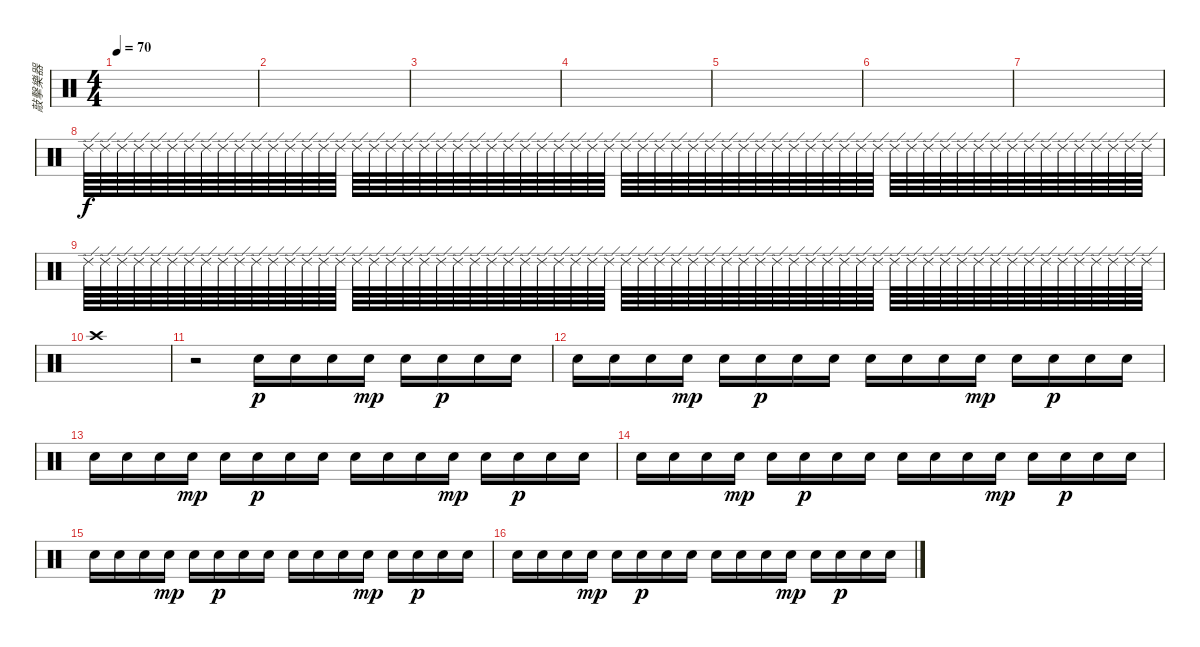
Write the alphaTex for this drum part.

\track ("敲擊樂器" "敲擊樂器") {instrument percussion}
\staff {score}
\articulation defaults
\ts (4 4)
\tempo 70
\clef neutral
\ks c
|
|
|
|
|
|
|
"Ride (edge) 2".64 "Ride (edge) 2".64 "Ride (edge) 2".64 "Ride (edge) 2".64 "Ride (edge) 2".64 "Ride (edge) 2".64 "Ride (edge) 2".64 "Ride (edge) 2".64 "Ride (edge) 2".64 "Ride (edge) 2".64 "Ride (edge) 2".64 "Ride (edge) 2".64 "Ride (edge) 2".64 "Ride (edge) 2".64 "Ride (edge) 2".64 "Ride (edge) 2".64 "Ride (edge) 2".64 "Ride (edge) 2".64 "Ride (edge) 2".64 "Ride (edge) 2".64 "Ride (edge) 2".64 "Ride (edge) 2".64 "Ride (edge) 2".64 "Ride (edge) 2".64 "Ride (edge) 2".64 "Ride (edge) 2".64 "Ride (edge) 2".64 "Ride (edge) 2".64 "Ride (edge) 2".64 "Ride (edge) 2".64 "Ride (edge) 2".64 "Ride (edge) 2".64 "Ride (edge) 2".64 "Ride (edge) 2".64 "Ride (edge) 2".64 "Ride (edge) 2".64 "Ride (edge) 2".64 "Ride (edge) 2".64 "Ride (edge) 2".64 "Ride (edge) 2".64 "Ride (edge) 2".64 "Ride (edge) 2".64 "Ride (edge) 2".64 "Ride (edge) 2".64 "Ride (edge) 2".64 "Ride (edge) 2".64 "Ride (edge) 2".64 "Ride (edge) 2".64 "Ride (edge) 2".64 "Ride (edge) 2".64 "Ride (edge) 2".64 "Ride (edge) 2".64 "Ride (edge) 2".64 "Ride (edge) 2".64 "Ride (edge) 2".64 "Ride (edge) 2".64 "Ride (edge) 2".64 "Ride (edge) 2".64 "Ride (edge) 2".64 "Ride (edge) 2".64 "Ride (edge) 2".64 "Ride (edge) 2".64 "Ride (edge) 2".64 "Ride (edge) 2".64 |
"Ride (edge) 2".64 "Ride (edge) 2".64 "Ride (edge) 2".64 "Ride (edge) 2".64 "Ride (edge) 2".64 "Ride (edge) 2".64 "Ride (edge) 2".64 "Ride (edge) 2".64 "Ride (edge) 2".64 "Ride (edge) 2".64 "Ride (edge) 2".64 "Ride (edge) 2".64 "Ride (edge) 2".64 "Ride (edge) 2".64 "Ride (edge) 2".64 "Ride (edge) 2".64 "Ride (edge) 2".64 "Ride (edge) 2".64 "Ride (edge) 2".64 "Ride (edge) 2".64 "Ride (edge) 2".64 "Ride (edge) 2".64 "Ride (edge) 2".64 "Ride (edge) 2".64 "Ride (edge) 2".64 "Ride (edge) 2".64 "Ride (edge) 2".64 "Ride (edge) 2".64 "Ride (edge) 2".64 "Ride (edge) 2".64 "Ride (edge) 2".64 "Ride (edge) 2".64 "Ride (edge) 2".64 "Ride (edge) 2".64 "Ride (edge) 2".64 "Ride (edge) 2".64 "Ride (edge) 2".64 "Ride (edge) 2".64 "Ride (edge) 2".64 "Ride (edge) 2".64 "Ride (edge) 2".64 "Ride (edge) 2".64 "Ride (edge) 2".64 "Ride (edge) 2".64 "Ride (edge) 2".64 "Ride (edge) 2".64 "Ride (edge) 2".64 "Ride (edge) 2".64 "Ride (edge) 2".64 "Ride (edge) 2".64 "Ride (edge) 2".64 "Ride (edge) 2".64 "Ride (edge) 2".64 "Ride (edge) 2".64 "Ride (edge) 2".64 "Ride (edge) 2".64 "Ride (edge) 2".64 "Ride (edge) 2".64 "Ride (edge) 2".64 "Ride (edge) 2".64 "Ride (edge) 2".64 "Ride (edge) 2".64 "Ride (edge) 2".64 "Ride (edge) 2".64 |
"Crash high (hit)".1 |
r.2 "Snare (hit) 2".16{dy p} "Snare (hit) 2".16 "Snare (hit) 2".16 "Snare (hit) 2".16{dy mp} "Snare (hit) 2".16 "Snare (hit) 2".16{dy p} "Snare (hit) 2".16 "Snare (hit) 2".16 |
"Snare (hit) 2".16 "Snare (hit) 2".16 "Snare (hit) 2".16 "Snare (hit) 2".16{dy mp} "Snare (hit) 2".16 "Snare (hit) 2".16{dy p} "Snare (hit) 2".16 "Snare (hit) 2".16 "Snare (hit) 2".16 "Snare (hit) 2".16 "Snare (hit) 2".16 "Snare (hit) 2".16{dy mp} "Snare (hit) 2".16 "Snare (hit) 2".16{dy p} "Snare (hit) 2".16 "Snare (hit) 2".16 |
"Snare (hit) 2".16 "Snare (hit) 2".16 "Snare (hit) 2".16 "Snare (hit) 2".16{dy mp} "Snare (hit) 2".16 "Snare (hit) 2".16{dy p} "Snare (hit) 2".16 "Snare (hit) 2".16 "Snare (hit) 2".16 "Snare (hit) 2".16 "Snare (hit) 2".16 "Snare (hit) 2".16{dy mp} "Snare (hit) 2".16 "Snare (hit) 2".16{dy p} "Snare (hit) 2".16 "Snare (hit) 2".16 |
"Snare (hit) 2".16 "Snare (hit) 2".16 "Snare (hit) 2".16 "Snare (hit) 2".16{dy mp} "Snare (hit) 2".16 "Snare (hit) 2".16{dy p} "Snare (hit) 2".16 "Snare (hit) 2".16 "Snare (hit) 2".16 "Snare (hit) 2".16 "Snare (hit) 2".16 "Snare (hit) 2".16{dy mp} "Snare (hit) 2".16 "Snare (hit) 2".16{dy p} "Snare (hit) 2".16 "Snare (hit) 2".16 |
"Snare (hit) 2".16 "Snare (hit) 2".16 "Snare (hit) 2".16 "Snare (hit) 2".16{dy mp} "Snare (hit) 2".16 "Snare (hit) 2".16{dy p} "Snare (hit) 2".16 "Snare (hit) 2".16 "Snare (hit) 2".16 "Snare (hit) 2".16 "Snare (hit) 2".16 "Snare (hit) 2".16{dy mp} "Snare (hit) 2".16 "Snare (hit) 2".16{dy p} "Snare (hit) 2".16 "Snare (hit) 2".16 |
"Snare (hit) 2".16 "Snare (hit) 2".16 "Snare (hit) 2".16 "Snare (hit) 2".16{dy mp} "Snare (hit) 2".16 "Snare (hit) 2".16{dy p} "Snare (hit) 2".16 "Snare (hit) 2".16 "Snare (hit) 2".16 "Snare (hit) 2".16 "Snare (hit) 2".16 "Snare (hit) 2".16{dy mp} "Snare (hit) 2".16 "Snare (hit) 2".16{dy p} "Snare (hit) 2".16 "Snare (hit) 2".16
